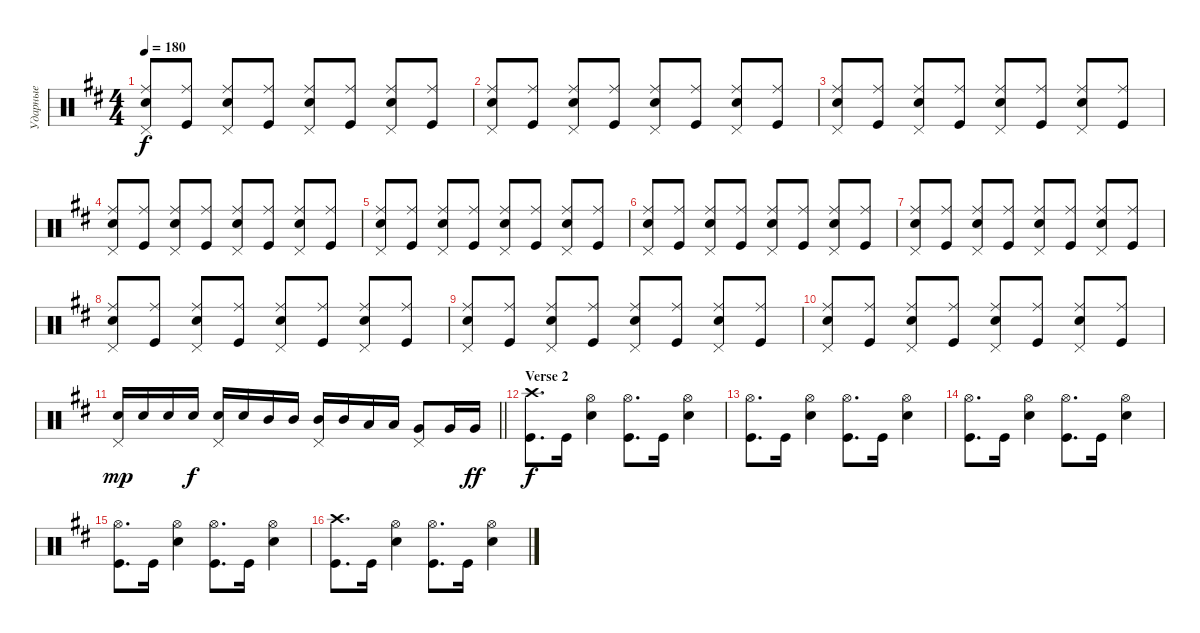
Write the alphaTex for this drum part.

\track ("Ударные" "Ударные") {instrument percussion}
\staff {score}
\articulation defaults
\ts (4 4)
\tempo 180
\clef neutral
\ks bminor
("Ride (middle)" "Snare (hit) 2" "Pedal Hi-Hat (hit)").8{dy f} ("Kick (hit)" "Ride (middle)").8 ("Pedal Hi-Hat (hit)" "Snare (hit) 2" "Ride (middle)").8 ("Kick (hit)" "Ride (middle)").8 ("Pedal Hi-Hat (hit)" "Snare (hit) 2" "Ride (middle)").8 ("Kick (hit)" "Ride (middle)").8 ("Pedal Hi-Hat (hit)" "Snare (hit) 2" "Ride (middle)").8 ("Kick (hit)" "Ride (middle)").8 |
("Ride (middle)" "Snare (hit) 2" "Pedal Hi-Hat (hit)").8 ("Kick (hit)" "Ride (middle)").8 ("Pedal Hi-Hat (hit)" "Snare (hit) 2" "Ride (middle)").8 ("Kick (hit)" "Ride (middle)").8 ("Pedal Hi-Hat (hit)" "Snare (hit) 2" "Ride (middle)").8 ("Kick (hit)" "Ride (middle)").8 ("Pedal Hi-Hat (hit)" "Snare (hit) 2" "Ride (middle)").8 ("Kick (hit)" "Ride (middle)").8 |
("Ride (middle)" "Snare (hit) 2" "Pedal Hi-Hat (hit)").8 ("Kick (hit)" "Ride (middle)").8 ("Pedal Hi-Hat (hit)" "Snare (hit) 2" "Ride (middle)").8 ("Kick (hit)" "Ride (middle)").8 ("Pedal Hi-Hat (hit)" "Snare (hit) 2" "Ride (middle)").8 ("Kick (hit)" "Ride (middle)").8 ("Pedal Hi-Hat (hit)" "Snare (hit) 2" "Ride (middle)").8 ("Kick (hit)" "Ride (middle)").8 |
("Ride (middle)" "Snare (hit) 2" "Pedal Hi-Hat (hit)").8 ("Kick (hit)" "Ride (middle)").8 ("Pedal Hi-Hat (hit)" "Snare (hit) 2" "Ride (middle)").8 ("Kick (hit)" "Ride (middle)").8 ("Pedal Hi-Hat (hit)" "Snare (hit) 2" "Ride (middle)").8 ("Kick (hit)" "Ride (middle)").8 ("Pedal Hi-Hat (hit)" "Snare (hit) 2" "Ride (middle)").8 ("Kick (hit)" "Ride (middle)").8 |
("Ride (middle)" "Snare (hit) 2" "Pedal Hi-Hat (hit)").8 ("Kick (hit)" "Ride (middle)").8 ("Pedal Hi-Hat (hit)" "Snare (hit) 2" "Ride (middle)").8 ("Kick (hit)" "Ride (middle)").8 ("Pedal Hi-Hat (hit)" "Snare (hit) 2" "Ride (middle)").8 ("Kick (hit)" "Ride (middle)").8 ("Pedal Hi-Hat (hit)" "Snare (hit) 2" "Ride (middle)").8 ("Kick (hit)" "Ride (middle)").8 |
("Ride (middle)" "Snare (hit) 2" "Pedal Hi-Hat (hit)").8 ("Kick (hit)" "Ride (middle)").8 ("Pedal Hi-Hat (hit)" "Snare (hit) 2" "Ride (middle)").8 ("Kick (hit)" "Ride (middle)").8 ("Pedal Hi-Hat (hit)" "Snare (hit) 2" "Ride (middle)").8 ("Kick (hit)" "Ride (middle)").8 ("Pedal Hi-Hat (hit)" "Snare (hit) 2" "Ride (middle)").8 ("Kick (hit)" "Ride (middle)").8 |
("Ride (middle)" "Snare (hit) 2" "Pedal Hi-Hat (hit)").8 ("Kick (hit)" "Ride (middle)").8 ("Pedal Hi-Hat (hit)" "Snare (hit) 2" "Ride (middle)").8 ("Kick (hit)" "Ride (middle)").8 ("Pedal Hi-Hat (hit)" "Snare (hit) 2" "Ride (middle)").8 ("Kick (hit)" "Ride (middle)").8 ("Pedal Hi-Hat (hit)" "Snare (hit) 2" "Ride (middle)").8 ("Kick (hit)" "Ride (middle)").8 |
("Ride (middle)" "Snare (hit) 2" "Pedal Hi-Hat (hit)").8 ("Kick (hit)" "Ride (middle)").8 ("Pedal Hi-Hat (hit)" "Snare (hit) 2" "Ride (middle)").8 ("Kick (hit)" "Ride (middle)").8 ("Pedal Hi-Hat (hit)" "Snare (hit) 2" "Ride (middle)").8 ("Kick (hit)" "Ride (middle)").8 ("Pedal Hi-Hat (hit)" "Snare (hit) 2" "Ride (middle)").8 ("Kick (hit)" "Ride (middle)").8 |
("Ride (middle)" "Snare (hit) 2" "Pedal Hi-Hat (hit)").8 ("Kick (hit)" "Ride (middle)").8 ("Pedal Hi-Hat (hit)" "Snare (hit) 2" "Ride (middle)").8 ("Kick (hit)" "Ride (middle)").8 ("Pedal Hi-Hat (hit)" "Snare (hit) 2" "Ride (middle)").8 ("Kick (hit)" "Ride (middle)").8 ("Pedal Hi-Hat (hit)" "Snare (hit) 2" "Ride (middle)").8 ("Kick (hit)" "Ride (middle)").8 |
("Ride (middle)" "Snare (hit) 2" "Pedal Hi-Hat (hit)").8 ("Kick (hit)" "Ride (middle)").8 ("Pedal Hi-Hat (hit)" "Snare (hit) 2" "Ride (middle)").8 ("Kick (hit)" "Ride (middle)").8 ("Pedal Hi-Hat (hit)" "Snare (hit) 2" "Ride (middle)").8 ("Kick (hit)" "Ride (middle)").8 ("Pedal Hi-Hat (hit)" "Snare (hit) 2" "Ride (middle)").8 ("Kick (hit)" "Ride (middle)").8 |
\barLineRight lightlight
("Snare (hit) 2" "Pedal Hi-Hat (hit)").16{dy mp} "Snare (hit) 2".16 "Snare (hit) 2".16 "Snare (hit) 2".16{dy f} ("Snare (hit) 2" "Pedal Hi-Hat (hit)").16 "Snare (hit) 2".16 "Mid Tom (hit)".16 "Mid Tom (hit)".16 ("Mid Tom (hit)" "Pedal Hi-Hat (hit)").16 "Mid Tom (hit)".16 "Low Tom (hit)".16 "Low Tom (hit)".16 ("Very Low Tom (hit)" "Pedal Hi-Hat (hit)").8 "Very Low Tom (hit)".16 "Very Low Tom (hit)".16{dy ff} |
\section ("" "Verse 2")
("Crash high (hit)" "Kick (hit)").8{d dy f} "Kick (hit)".16 ("Hi-Hat (open)" "Snare (hit) 2").4 ("Kick (hit)" "Hi-Hat (open)").8{d} "Kick (hit)".16 ("Snare (hit) 2" "Hi-Hat (open)").4 |
("Hi-Hat (open)" "Kick (hit)").8{d} "Kick (hit)".16 ("Hi-Hat (open)" "Snare (hit) 2").4 ("Kick (hit)" "Hi-Hat (open)").8{d} "Kick (hit)".16 ("Snare (hit) 2" "Hi-Hat (open)").4 |
("Hi-Hat (open)" "Kick (hit)").8{d} "Kick (hit)".16 ("Hi-Hat (open)" "Snare (hit) 2").4 ("Kick (hit)" "Hi-Hat (open)").8{d} "Kick (hit)".16 ("Snare (hit) 2" "Hi-Hat (open)").4 |
("Hi-Hat (open)" "Kick (hit)").8{d} "Kick (hit)".16 ("Hi-Hat (open)" "Snare (hit) 2").4 ("Kick (hit)" "Hi-Hat (open)").8{d} "Kick (hit)".16 ("Snare (hit) 2" "Hi-Hat (open)").4 |
("Crash high (hit)" "Kick (hit)").8{d} "Kick (hit)".16 ("Hi-Hat (open)" "Snare (hit) 2").4 ("Kick (hit)" "Hi-Hat (open)").8{d} "Kick (hit)".16 ("Snare (hit) 2" "Hi-Hat (open)").4
